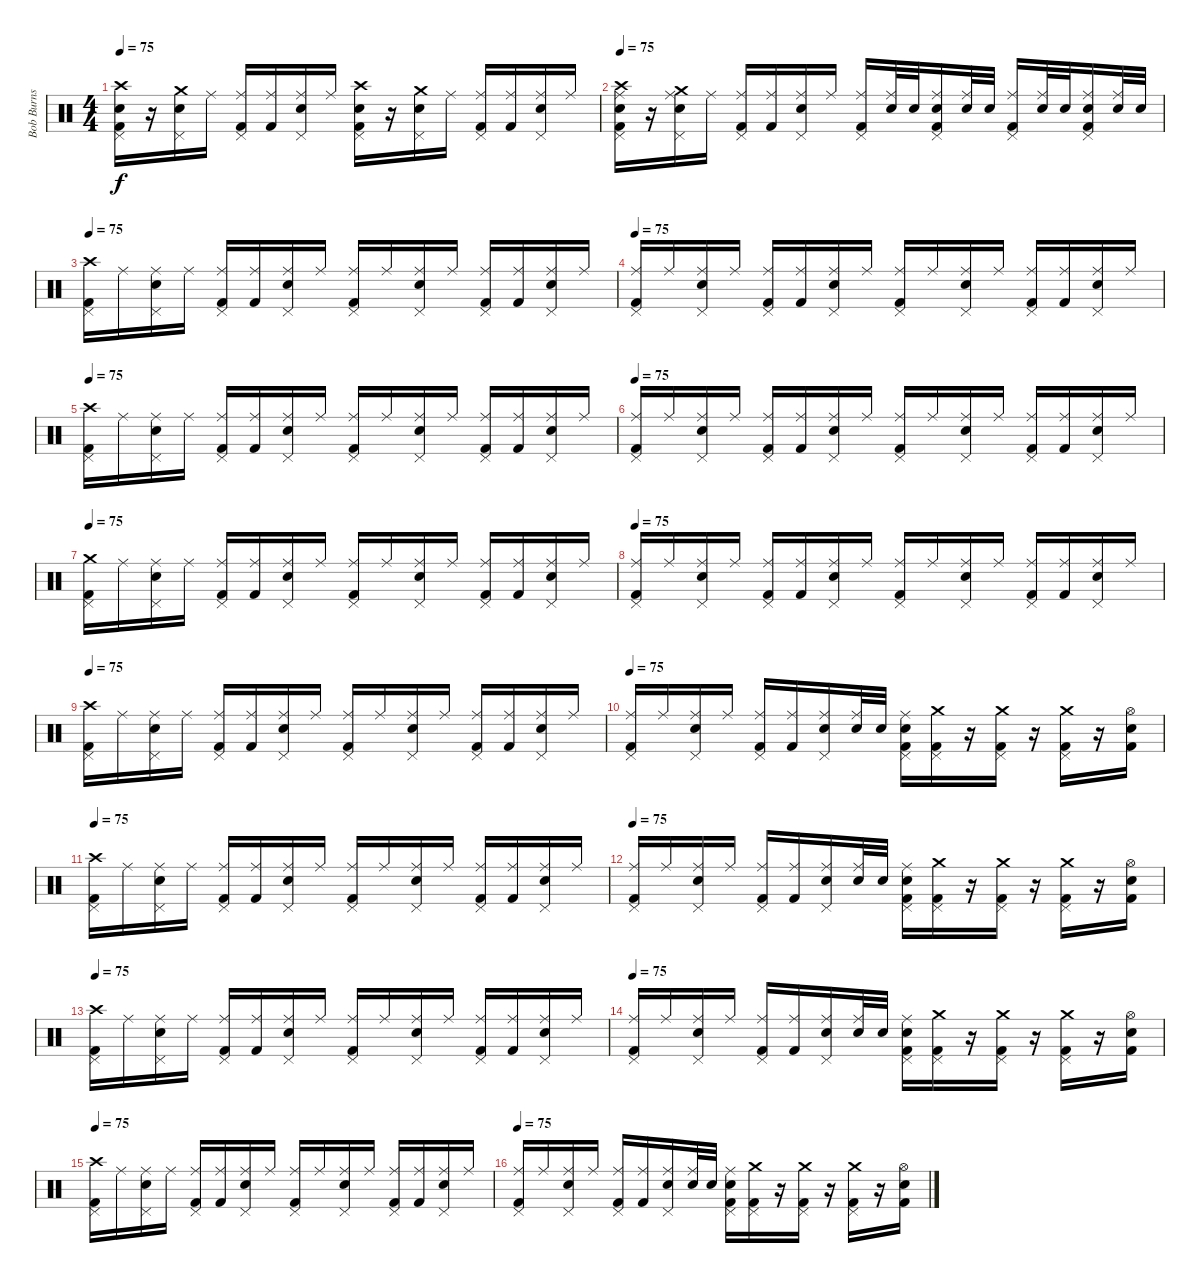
\track ("Bob Burns (drums and percussion)" "Bob Burns ") {instrument percussion}
\staff {score}
\articulation defaults
\ts (4 4)
\tempo 75
\clef neutral
\ks c
("Crash high (hit)" "Electric Snare (hit)" "Pedal Hi-Hat (hit)" "Kick (hit) 2").16{dy f} r.16 ("Crash medium (hit)" "Pedal Hi-Hat (hit)" "Electric Snare (hit)").16 "Ride (middle)".16 ("Ride (middle)" "Pedal Hi-Hat (hit)" "Kick (hit) 2").16 ("Ride (middle)" "Kick (hit) 2").16 ("Ride (middle)" "Pedal Hi-Hat (hit)" "Electric Snare (hit)").16 "Ride (middle)".16 ("Crash high (hit)" "Pedal Hi-Hat (hit)" "Electric Snare (hit)" "Kick (hit) 2").16 r.16 ("Crash medium (hit)" "Pedal Hi-Hat (hit)" "Electric Snare (hit)").16 "Ride (middle)".16 ("Ride (middle)" "Pedal Hi-Hat (hit)" "Kick (hit) 2").16 ("Ride (middle)" "Kick (hit) 2").16 ("Ride (middle)" "Pedal Hi-Hat (hit)" "Electric Snare (hit)").16 "Ride (middle)".16 |
\tempo 75
("Crash high (hit)" "Ride (middle)" "Pedal Hi-Hat (hit)" "Electric Snare (hit)" "Kick (hit) 2").16 r.16 ("Crash medium (hit)" "Ride (middle)" "Pedal Hi-Hat (hit)" "Electric Snare (hit)").16 "Ride (middle)".16 ("Ride (middle)" "Pedal Hi-Hat (hit)" "Kick (hit) 2").16 ("Ride (middle)" "Kick (hit) 2").16 ("Ride (middle)" "Pedal Hi-Hat (hit)" "Electric Snare (hit)").16 "Ride (middle)".16 ("Ride (middle)" "Pedal Hi-Hat (hit)" "Kick (hit) 2").16 ("Ride (middle)" "Electric Snare (hit)").32 "Electric Snare (hit)".32 ("Ride (middle)" "Pedal Hi-Hat (hit)" "Electric Snare (hit)" "Kick (hit) 2").16 ("Ride (middle)" "Electric Snare (hit)").32 "Electric Snare (hit)".32 ("Ride (middle)" "Pedal Hi-Hat (hit)" "Kick (hit) 2").16 ("Ride (middle)" "Electric Snare (hit)").32 "Electric Snare (hit)".32 ("Ride (middle)" "Pedal Hi-Hat (hit)" "Electric Snare (hit)" "Kick (hit) 2").16 ("Ride (middle)" "Electric Snare (hit)").32 "Electric Snare (hit)".32 |
\tempo 75
("Crash high (hit)" "Pedal Hi-Hat (hit)" "Kick (hit) 2").16 "Ride (middle)".16 ("Ride (middle)" "Pedal Hi-Hat (hit)" "Electric Snare (hit)").16 "Ride (middle)".16 ("Ride (middle)" "Pedal Hi-Hat (hit)" "Kick (hit) 2").16 ("Ride (middle)" "Kick (hit) 2").16 ("Ride (middle)" "Pedal Hi-Hat (hit)" "Electric Snare (hit)").16 "Ride (middle)".16 ("Ride (middle)" "Pedal Hi-Hat (hit)" "Kick (hit) 2").16 "Ride (middle)".16 ("Ride (middle)" "Pedal Hi-Hat (hit)" "Electric Snare (hit)").16 "Ride (middle)".16 ("Ride (middle)" "Pedal Hi-Hat (hit)" "Kick (hit) 2").16 ("Ride (middle)" "Kick (hit) 2").16 ("Ride (middle)" "Pedal Hi-Hat (hit)" "Electric Snare (hit)").16 "Ride (middle)".16 |
\tempo 75
("Ride (middle)" "Pedal Hi-Hat (hit)" "Kick (hit) 2").16 "Ride (middle)".16 ("Ride (middle)" "Pedal Hi-Hat (hit)" "Electric Snare (hit)").16 "Ride (middle)".16 ("Ride (middle)" "Pedal Hi-Hat (hit)" "Kick (hit) 2").16 ("Ride (middle)" "Kick (hit) 2").16 ("Ride (middle)" "Pedal Hi-Hat (hit)" "Electric Snare (hit)").16 "Ride (middle)".16 ("Ride (middle)" "Pedal Hi-Hat (hit)" "Kick (hit) 2").16 "Ride (middle)".16 ("Ride (middle)" "Pedal Hi-Hat (hit)" "Electric Snare (hit)").16 "Ride (middle)".16 ("Ride (middle)" "Pedal Hi-Hat (hit)" "Kick (hit) 2").16 ("Ride (middle)" "Kick (hit) 2").16 ("Ride (middle)" "Pedal Hi-Hat (hit)" "Electric Snare (hit)").16 "Ride (middle)".16 |
\tempo 75
("Crash high (hit)" "Pedal Hi-Hat (hit)" "Kick (hit) 2").16 "Ride (middle)".16 ("Ride (middle)" "Pedal Hi-Hat (hit)" "Electric Snare (hit)").16 "Ride (middle)".16 ("Ride (middle)" "Pedal Hi-Hat (hit)" "Kick (hit) 2").16 ("Ride (middle)" "Kick (hit) 2").16 ("Ride (middle)" "Pedal Hi-Hat (hit)" "Electric Snare (hit)").16 "Ride (middle)".16 ("Ride (middle)" "Pedal Hi-Hat (hit)" "Kick (hit) 2").16 "Ride (middle)".16 ("Ride (middle)" "Pedal Hi-Hat (hit)" "Electric Snare (hit)").16 "Ride (middle)".16 ("Ride (middle)" "Pedal Hi-Hat (hit)" "Kick (hit) 2").16 ("Ride (middle)" "Kick (hit) 2").16 ("Ride (middle)" "Pedal Hi-Hat (hit)" "Electric Snare (hit)").16 "Ride (middle)".16 |
\tempo 75
("Ride (middle)" "Pedal Hi-Hat (hit)" "Kick (hit) 2").16 "Ride (middle)".16 ("Ride (middle)" "Pedal Hi-Hat (hit)" "Electric Snare (hit)").16 "Ride (middle)".16 ("Ride (middle)" "Pedal Hi-Hat (hit)" "Kick (hit) 2").16 ("Ride (middle)" "Kick (hit) 2").16 ("Ride (middle)" "Pedal Hi-Hat (hit)" "Electric Snare (hit)").16 "Ride (middle)".16 ("Ride (middle)" "Pedal Hi-Hat (hit)" "Kick (hit) 2").16 "Ride (middle)".16 ("Ride (middle)" "Pedal Hi-Hat (hit)" "Electric Snare (hit)").16 "Ride (middle)".16 ("Ride (middle)" "Pedal Hi-Hat (hit)" "Kick (hit) 2").16 ("Ride (middle)" "Kick (hit) 2").16 ("Ride (middle)" "Pedal Hi-Hat (hit)" "Electric Snare (hit)").16 "Ride (middle)".16 |
\tempo 75
("Crash medium (hit)" "Pedal Hi-Hat (hit)" "Kick (hit) 2").16 "Ride (middle)".16 ("Ride (middle)" "Pedal Hi-Hat (hit)" "Electric Snare (hit)").16 "Ride (middle)".16 ("Ride (middle)" "Pedal Hi-Hat (hit)" "Kick (hit) 2").16 ("Ride (middle)" "Kick (hit) 2").16 ("Ride (middle)" "Pedal Hi-Hat (hit)" "Electric Snare (hit)").16 "Ride (middle)".16 ("Ride (middle)" "Pedal Hi-Hat (hit)" "Kick (hit) 2").16 "Ride (middle)".16 ("Ride (middle)" "Pedal Hi-Hat (hit)" "Electric Snare (hit)").16 "Ride (middle)".16 ("Ride (middle)" "Pedal Hi-Hat (hit)" "Kick (hit) 2").16 ("Ride (middle)" "Kick (hit) 2").16 ("Ride (middle)" "Pedal Hi-Hat (hit)" "Electric Snare (hit)").16 "Ride (middle)".16 |
\tempo 75
("Ride (middle)" "Pedal Hi-Hat (hit)" "Kick (hit) 2").16 "Ride (middle)".16 ("Ride (middle)" "Pedal Hi-Hat (hit)" "Electric Snare (hit)").16 "Ride (middle)".16 ("Ride (middle)" "Pedal Hi-Hat (hit)" "Kick (hit) 2").16 ("Ride (middle)" "Kick (hit) 2").16 ("Ride (middle)" "Pedal Hi-Hat (hit)" "Electric Snare (hit)").16 "Ride (middle)".16 ("Ride (middle)" "Pedal Hi-Hat (hit)" "Kick (hit) 2").16 "Ride (middle)".16 ("Ride (middle)" "Pedal Hi-Hat (hit)" "Electric Snare (hit)").16 "Ride (middle)".16 ("Ride (middle)" "Pedal Hi-Hat (hit)" "Kick (hit) 2").16 ("Ride (middle)" "Kick (hit) 2").16 ("Ride (middle)" "Pedal Hi-Hat (hit)" "Electric Snare (hit)").16 "Ride (middle)".16 |
\tempo 75
("Crash high (hit)" "Pedal Hi-Hat (hit)" "Kick (hit) 2").16 "Ride (middle)".16 ("Ride (middle)" "Pedal Hi-Hat (hit)" "Electric Snare (hit)").16 "Ride (middle)".16 ("Ride (middle)" "Pedal Hi-Hat (hit)" "Kick (hit) 2").16 ("Ride (middle)" "Kick (hit) 2").16 ("Ride (middle)" "Pedal Hi-Hat (hit)" "Electric Snare (hit)").16 "Ride (middle)".16 ("Ride (middle)" "Pedal Hi-Hat (hit)" "Kick (hit) 2").16 "Ride (middle)".16 ("Ride (middle)" "Pedal Hi-Hat (hit)" "Electric Snare (hit)").16 "Ride (middle)".16 ("Ride (middle)" "Pedal Hi-Hat (hit)" "Kick (hit) 2").16 ("Ride (middle)" "Kick (hit) 2").16 ("Ride (middle)" "Pedal Hi-Hat (hit)" "Electric Snare (hit)").16 "Ride (middle)".16 |
\tempo 75
("Ride (middle)" "Pedal Hi-Hat (hit)" "Kick (hit) 2").16 "Ride (middle)".16 ("Ride (middle)" "Pedal Hi-Hat (hit)" "Electric Snare (hit)").16 "Ride (middle)".16 ("Ride (middle)" "Pedal Hi-Hat (hit)" "Kick (hit) 2").16 ("Ride (middle)" "Kick (hit) 2").16 ("Ride (middle)" "Pedal Hi-Hat (hit)" "Electric Snare (hit)").16 ("Ride (middle)" "Electric Snare (hit)").32 "Electric Snare (hit)".32 ("Ride (middle)" "Pedal Hi-Hat (hit)" "Electric Snare (hit)" "Kick (hit) 2").16 ("Crash medium (hit)" "Pedal Hi-Hat (hit)" "Kick (hit) 2").16 r.16 ("Crash medium (hit)" "Pedal Hi-Hat (hit)" "Kick (hit) 2").16 r.16 ("Crash medium (hit)" "Pedal Hi-Hat (hit)" "Kick (hit) 2").16 r.16 ("Hi-Hat (open)" "Electric Snare (hit)" "Kick (hit) 2").16 |
\tempo 75
("Crash high (hit)" "Pedal Hi-Hat (hit)" "Kick (hit) 2").16 "Ride (middle)".16 ("Ride (middle)" "Pedal Hi-Hat (hit)" "Electric Snare (hit)").16 "Ride (middle)".16 ("Ride (middle)" "Pedal Hi-Hat (hit)" "Kick (hit) 2").16 ("Ride (middle)" "Kick (hit) 2").16 ("Ride (middle)" "Pedal Hi-Hat (hit)" "Electric Snare (hit)").16 "Ride (middle)".16 ("Ride (middle)" "Pedal Hi-Hat (hit)" "Kick (hit) 2").16 "Ride (middle)".16 ("Ride (middle)" "Pedal Hi-Hat (hit)" "Electric Snare (hit)").16 "Ride (middle)".16 ("Ride (middle)" "Pedal Hi-Hat (hit)" "Kick (hit) 2").16 ("Ride (middle)" "Kick (hit) 2").16 ("Ride (middle)" "Pedal Hi-Hat (hit)" "Electric Snare (hit)").16 "Ride (middle)".16 |
\tempo 75
("Ride (middle)" "Pedal Hi-Hat (hit)" "Kick (hit) 2").16 "Ride (middle)".16 ("Ride (middle)" "Pedal Hi-Hat (hit)" "Electric Snare (hit)").16 "Ride (middle)".16 ("Ride (middle)" "Pedal Hi-Hat (hit)" "Kick (hit) 2").16 ("Ride (middle)" "Kick (hit) 2").16 ("Ride (middle)" "Pedal Hi-Hat (hit)" "Electric Snare (hit)").16 ("Ride (middle)" "Electric Snare (hit)").32 "Electric Snare (hit)".32 ("Ride (middle)" "Pedal Hi-Hat (hit)" "Electric Snare (hit)" "Kick (hit) 2").16 ("Crash medium (hit)" "Pedal Hi-Hat (hit)" "Kick (hit) 2").16 r.16 ("Crash medium (hit)" "Pedal Hi-Hat (hit)" "Kick (hit) 2").16 r.16 ("Crash medium (hit)" "Pedal Hi-Hat (hit)" "Kick (hit) 2").16 r.16 ("Hi-Hat (open)" "Electric Snare (hit)" "Kick (hit) 2").16 |
\tempo 75
("Crash high (hit)" "Pedal Hi-Hat (hit)" "Kick (hit) 2").16 "Ride (middle)".16 ("Ride (middle)" "Pedal Hi-Hat (hit)" "Electric Snare (hit)").16 "Ride (middle)".16 ("Ride (middle)" "Pedal Hi-Hat (hit)" "Kick (hit) 2").16 ("Ride (middle)" "Kick (hit) 2").16 ("Ride (middle)" "Pedal Hi-Hat (hit)" "Electric Snare (hit)").16 "Ride (middle)".16 ("Ride (middle)" "Pedal Hi-Hat (hit)" "Kick (hit) 2").16 "Ride (middle)".16 ("Ride (middle)" "Pedal Hi-Hat (hit)" "Electric Snare (hit)").16 "Ride (middle)".16 ("Ride (middle)" "Pedal Hi-Hat (hit)" "Kick (hit) 2").16 ("Ride (middle)" "Kick (hit) 2").16 ("Ride (middle)" "Pedal Hi-Hat (hit)" "Electric Snare (hit)").16 "Ride (middle)".16 |
\tempo 75
("Ride (middle)" "Pedal Hi-Hat (hit)" "Kick (hit) 2").16 "Ride (middle)".16 ("Ride (middle)" "Pedal Hi-Hat (hit)" "Electric Snare (hit)").16 "Ride (middle)".16 ("Ride (middle)" "Pedal Hi-Hat (hit)" "Kick (hit) 2").16 ("Ride (middle)" "Kick (hit) 2").16 ("Ride (middle)" "Pedal Hi-Hat (hit)" "Electric Snare (hit)").16 ("Ride (middle)" "Electric Snare (hit)").32 "Electric Snare (hit)".32 ("Ride (middle)" "Pedal Hi-Hat (hit)" "Electric Snare (hit)" "Kick (hit) 2").16 ("Crash medium (hit)" "Pedal Hi-Hat (hit)" "Kick (hit) 2").16 r.16 ("Crash medium (hit)" "Pedal Hi-Hat (hit)" "Kick (hit) 2").16 r.16 ("Crash medium (hit)" "Pedal Hi-Hat (hit)" "Kick (hit) 2").16 r.16 ("Hi-Hat (open)" "Electric Snare (hit)" "Kick (hit) 2").16 |
\tempo 75
("Crash high (hit)" "Pedal Hi-Hat (hit)" "Kick (hit) 2").16 "Ride (middle)".16 ("Ride (middle)" "Pedal Hi-Hat (hit)" "Electric Snare (hit)").16 "Ride (middle)".16 ("Ride (middle)" "Pedal Hi-Hat (hit)" "Kick (hit) 2").16 ("Ride (middle)" "Kick (hit) 2").16 ("Ride (middle)" "Pedal Hi-Hat (hit)" "Electric Snare (hit)").16 "Ride (middle)".16 ("Ride (middle)" "Pedal Hi-Hat (hit)" "Kick (hit) 2").16 "Ride (middle)".16 ("Ride (middle)" "Pedal Hi-Hat (hit)" "Electric Snare (hit)").16 "Ride (middle)".16 ("Ride (middle)" "Pedal Hi-Hat (hit)" "Kick (hit) 2").16 ("Ride (middle)" "Kick (hit) 2").16 ("Ride (middle)" "Pedal Hi-Hat (hit)" "Electric Snare (hit)").16 "Ride (middle)".16 |
\tempo 75
("Ride (middle)" "Pedal Hi-Hat (hit)" "Kick (hit) 2").16 "Ride (middle)".16 ("Ride (middle)" "Pedal Hi-Hat (hit)" "Electric Snare (hit)").16 "Ride (middle)".16 ("Ride (middle)" "Pedal Hi-Hat (hit)" "Kick (hit) 2").16 ("Ride (middle)" "Kick (hit) 2").16 ("Ride (middle)" "Pedal Hi-Hat (hit)" "Electric Snare (hit)").16 ("Ride (middle)" "Electric Snare (hit)").32 "Electric Snare (hit)".32 ("Ride (middle)" "Pedal Hi-Hat (hit)" "Electric Snare (hit)" "Kick (hit) 2").16 ("Crash medium (hit)" "Pedal Hi-Hat (hit)" "Kick (hit) 2").16 r.16 ("Crash medium (hit)" "Pedal Hi-Hat (hit)" "Kick (hit) 2").16 r.16 ("Crash medium (hit)" "Pedal Hi-Hat (hit)" "Kick (hit) 2").16 r.16 ("Hi-Hat (open)" "Electric Snare (hit)" "Kick (hit) 2").16
